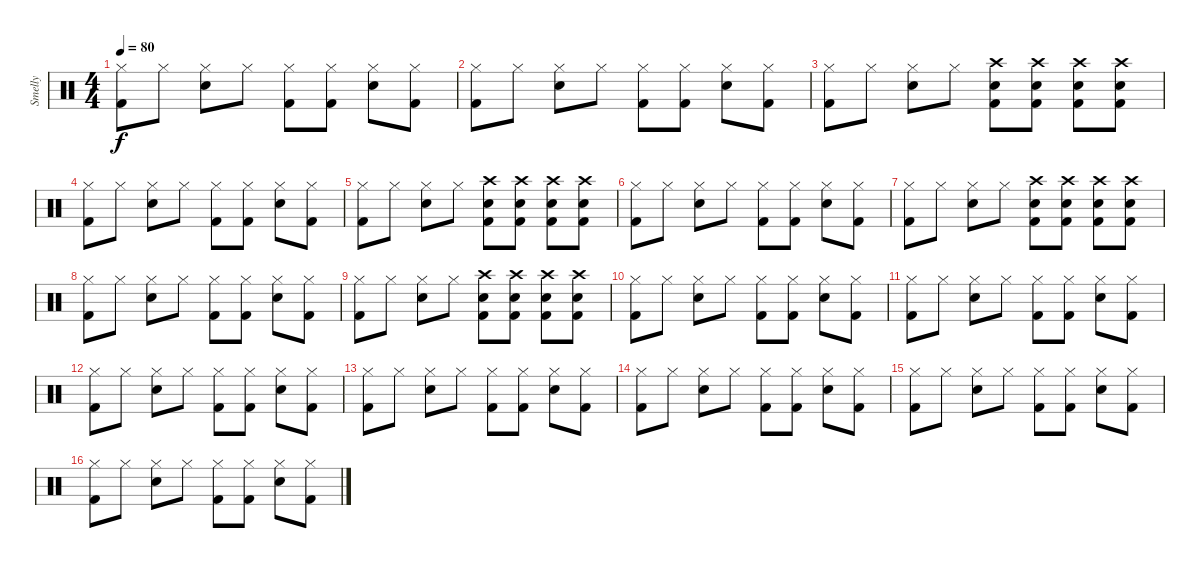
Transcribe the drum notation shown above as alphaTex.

\track ("Smelly" "Smelly") {instrument percussion}
\staff {score}
\articulation defaults
\ts (4 4)
\tempo 80
\clef neutral
\ks c
("Hi-Hat (closed)" "Kick (hit) 2").8{dy f} "Hi-Hat (closed)".8 ("Hi-Hat (closed)" "Electric Snare (hit)").8 "Hi-Hat (closed)".8 ("Hi-Hat (closed)" "Kick (hit) 2").8 ("Hi-Hat (closed)" "Kick (hit) 2").8 ("Hi-Hat (closed)" "Electric Snare (hit)").8 ("Hi-Hat (closed)" "Kick (hit) 2").8 |
("Hi-Hat (closed)" "Kick (hit) 2").8 "Hi-Hat (closed)".8 ("Hi-Hat (closed)" "Electric Snare (hit)").8 "Hi-Hat (closed)".8 ("Hi-Hat (closed)" "Kick (hit) 2").8 ("Hi-Hat (closed)" "Kick (hit) 2").8 ("Hi-Hat (closed)" "Electric Snare (hit)").8 ("Hi-Hat (closed)" "Kick (hit) 2").8 |
("Hi-Hat (closed)" "Kick (hit) 2").8 "Hi-Hat (closed)".8 ("Hi-Hat (closed)" "Electric Snare (hit)").8 "Hi-Hat (closed)".8 ("Crash high (hit)" "Electric Snare (hit)" "Kick (hit) 2").8 ("Crash high (hit)" "Electric Snare (hit)" "Kick (hit) 2").8 ("Crash high (hit)" "Electric Snare (hit)" "Kick (hit) 2").8 ("Crash high (hit)" "Electric Snare (hit)" "Kick (hit) 2").8 |
("Hi-Hat (closed)" "Kick (hit) 2").8 "Hi-Hat (closed)".8 ("Hi-Hat (closed)" "Electric Snare (hit)").8 "Hi-Hat (closed)".8 ("Hi-Hat (closed)" "Kick (hit) 2").8 ("Hi-Hat (closed)" "Kick (hit) 2").8 ("Hi-Hat (closed)" "Electric Snare (hit)").8 ("Hi-Hat (closed)" "Kick (hit) 2").8 |
("Hi-Hat (closed)" "Kick (hit) 2").8 "Hi-Hat (closed)".8 ("Hi-Hat (closed)" "Electric Snare (hit)").8 "Hi-Hat (closed)".8 ("Crash high (hit)" "Electric Snare (hit)" "Kick (hit) 2").8 ("Crash high (hit)" "Electric Snare (hit)" "Kick (hit) 2").8 ("Crash high (hit)" "Electric Snare (hit)" "Kick (hit) 2").8 ("Crash high (hit)" "Electric Snare (hit)" "Kick (hit) 2").8 |
("Hi-Hat (closed)" "Kick (hit) 2").8 "Hi-Hat (closed)".8 ("Hi-Hat (closed)" "Electric Snare (hit)").8 "Hi-Hat (closed)".8 ("Hi-Hat (closed)" "Kick (hit) 2").8 ("Hi-Hat (closed)" "Kick (hit) 2").8 ("Hi-Hat (closed)" "Electric Snare (hit)").8 ("Hi-Hat (closed)" "Kick (hit) 2").8 |
("Hi-Hat (closed)" "Kick (hit) 2").8 "Hi-Hat (closed)".8 ("Hi-Hat (closed)" "Electric Snare (hit)").8 "Hi-Hat (closed)".8 ("Crash high (hit)" "Electric Snare (hit)" "Kick (hit) 2").8 ("Crash high (hit)" "Electric Snare (hit)" "Kick (hit) 2").8 ("Crash high (hit)" "Electric Snare (hit)" "Kick (hit) 2").8 ("Crash high (hit)" "Electric Snare (hit)" "Kick (hit) 2").8 |
("Hi-Hat (closed)" "Kick (hit) 2").8 "Hi-Hat (closed)".8 ("Hi-Hat (closed)" "Electric Snare (hit)").8 "Hi-Hat (closed)".8 ("Hi-Hat (closed)" "Kick (hit) 2").8 ("Hi-Hat (closed)" "Kick (hit) 2").8 ("Hi-Hat (closed)" "Electric Snare (hit)").8 ("Hi-Hat (closed)" "Kick (hit) 2").8 |
("Hi-Hat (closed)" "Kick (hit) 2").8 "Hi-Hat (closed)".8 ("Hi-Hat (closed)" "Electric Snare (hit)").8 "Hi-Hat (closed)".8 ("Crash high (hit)" "Electric Snare (hit)" "Kick (hit) 2").8 ("Crash high (hit)" "Electric Snare (hit)" "Kick (hit) 2").8 ("Crash high (hit)" "Electric Snare (hit)" "Kick (hit) 2").8 ("Crash high (hit)" "Electric Snare (hit)" "Kick (hit) 2").8 |
("Hi-Hat (closed)" "Kick (hit) 2").8 "Hi-Hat (closed)".8 ("Hi-Hat (closed)" "Electric Snare (hit)").8 "Hi-Hat (closed)".8 ("Hi-Hat (closed)" "Kick (hit) 2").8 ("Hi-Hat (closed)" "Kick (hit) 2").8 ("Hi-Hat (closed)" "Electric Snare (hit)").8 ("Hi-Hat (closed)" "Kick (hit) 2").8 |
("Hi-Hat (closed)" "Kick (hit) 2").8 "Hi-Hat (closed)".8 ("Hi-Hat (closed)" "Electric Snare (hit)").8 "Hi-Hat (closed)".8 ("Hi-Hat (closed)" "Kick (hit) 2").8 ("Hi-Hat (closed)" "Kick (hit) 2").8 ("Hi-Hat (closed)" "Electric Snare (hit)").8 ("Hi-Hat (closed)" "Kick (hit) 2").8 |
("Hi-Hat (closed)" "Kick (hit) 2").8 "Hi-Hat (closed)".8 ("Hi-Hat (closed)" "Electric Snare (hit)").8 "Hi-Hat (closed)".8 ("Hi-Hat (closed)" "Kick (hit) 2").8 ("Hi-Hat (closed)" "Kick (hit) 2").8 ("Hi-Hat (closed)" "Electric Snare (hit)").8 ("Hi-Hat (closed)" "Kick (hit) 2").8 |
("Hi-Hat (closed)" "Kick (hit) 2").8 "Hi-Hat (closed)".8 ("Hi-Hat (closed)" "Electric Snare (hit)").8 "Hi-Hat (closed)".8 ("Hi-Hat (closed)" "Kick (hit) 2").8 ("Hi-Hat (closed)" "Kick (hit) 2").8 ("Hi-Hat (closed)" "Electric Snare (hit)").8 ("Hi-Hat (closed)" "Kick (hit) 2").8 |
("Hi-Hat (closed)" "Kick (hit) 2").8 "Hi-Hat (closed)".8 ("Hi-Hat (closed)" "Electric Snare (hit)").8 "Hi-Hat (closed)".8 ("Hi-Hat (closed)" "Kick (hit) 2").8 ("Hi-Hat (closed)" "Kick (hit) 2").8 ("Hi-Hat (closed)" "Electric Snare (hit)").8 ("Hi-Hat (closed)" "Kick (hit) 2").8 |
("Hi-Hat (closed)" "Kick (hit) 2").8 "Hi-Hat (closed)".8 ("Hi-Hat (closed)" "Electric Snare (hit)").8 "Hi-Hat (closed)".8 ("Hi-Hat (closed)" "Kick (hit) 2").8 ("Hi-Hat (closed)" "Kick (hit) 2").8 ("Hi-Hat (closed)" "Electric Snare (hit)").8 ("Hi-Hat (closed)" "Kick (hit) 2").8 |
("Hi-Hat (closed)" "Kick (hit) 2").8 "Hi-Hat (closed)".8 ("Hi-Hat (closed)" "Electric Snare (hit)").8 "Hi-Hat (closed)".8 ("Hi-Hat (closed)" "Kick (hit) 2").8 ("Hi-Hat (closed)" "Kick (hit) 2").8 ("Hi-Hat (closed)" "Electric Snare (hit)").8 ("Hi-Hat (closed)" "Kick (hit) 2").8
